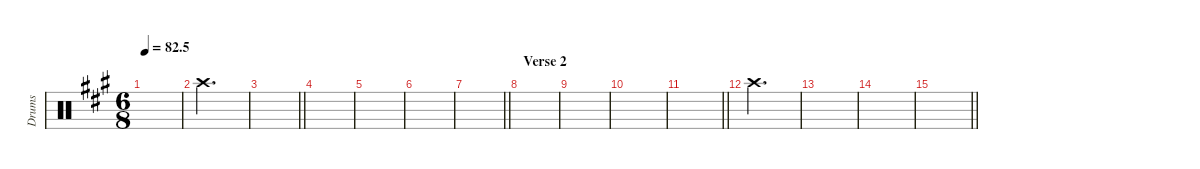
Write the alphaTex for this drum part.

\defaultSystemsLayout 4
\hideDynamics
\bracketExtendMode nobrackets
\otherSystemsTrackNameOrientation horizontal
\track ("Left crash" "Drums") {instrument percussion}
\staff {score}
\articulation defaults
\ts (6 8)
\tempo
82.5
\accidentals auto
\clef neutral
\ottava regular
\simile none
\scale
0.333333
\ks a
|
\scale
0.333333 "Crash high (hit)"{acc forcenatural}.2{d} |
\scale
0.333333
\barLineRight lightlight
|
\scale
0.333333 |
\scale
0.333333 |
\scale
0.333333 |
\scale
0.333333
\barLineRight lightlight
|
\section ("" "Verse 2")
\scale
0.333333 |
\scale
0.333333 |
\scale
0.333333 |
\scale
0.333333
\barLineRight lightlight
|
\scale
0.333333 "Crash high (hit)"{acc forcenatural}.2{d} |
\scale
0.333333 |
\scale
0.333333 |
\scale
0.333333
\barLineRight lightlight
|
\scale
0.333333
